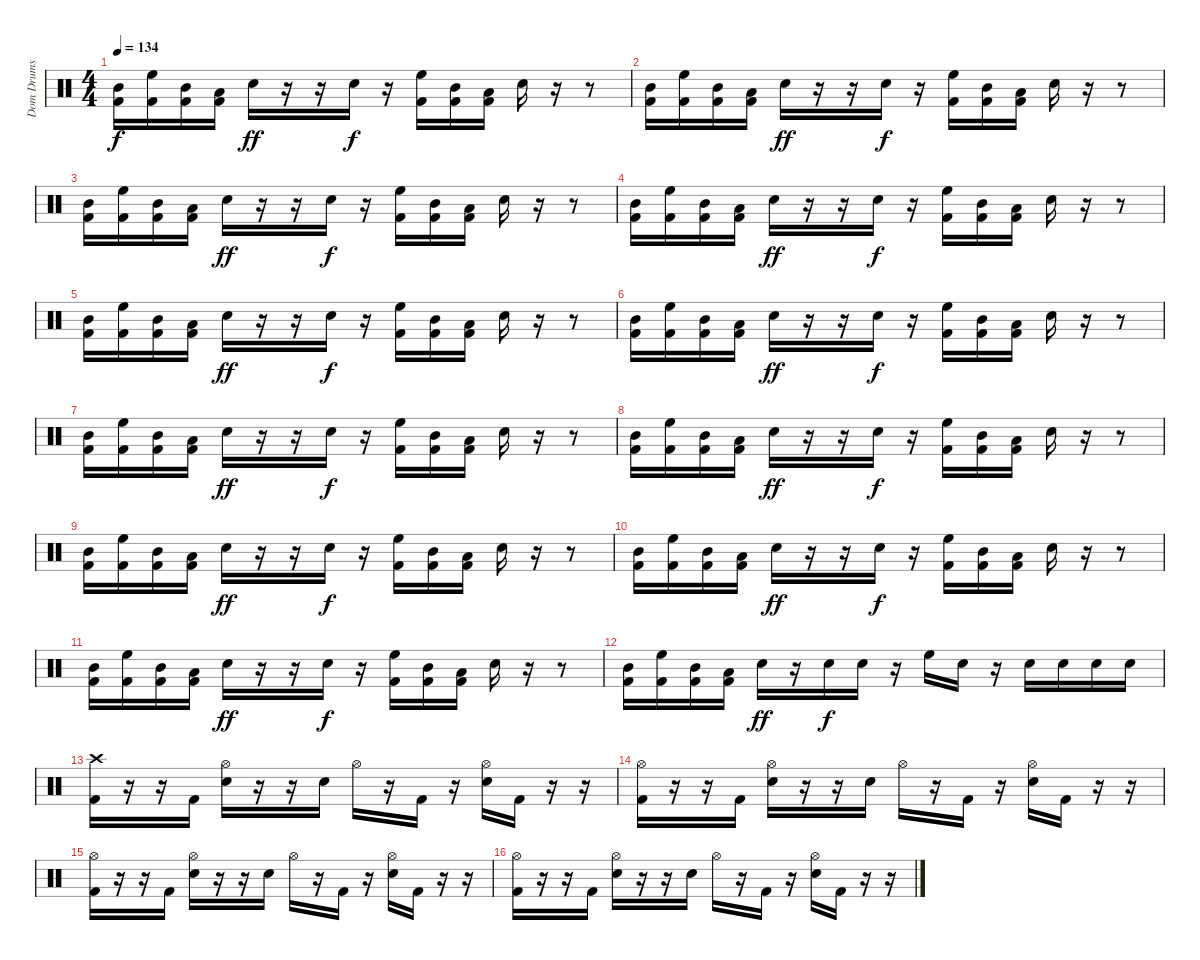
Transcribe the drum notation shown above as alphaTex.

\track ("Dom Drums" "Dom Drums") {instrument percussion}
\staff {score}
\articulation defaults
\ts (4 4)
\tempo 134
\clef neutral
\ks c
("Mid Tom (hit)" "Kick (hit) 2").16{dy f} ("High Floor Tom (hit)" "Kick (hit) 2").16 ("Mid Tom (hit)" "Kick (hit) 2").16 ("Low Tom (hit)" "Kick (hit) 2").16 "Electric Snare (hit)".16{dy ff} r.16 r.16 "Electric Snare (hit)".16{dy f} r.16 ("High Floor Tom (hit)" "Kick (hit) 2").16 ("Mid Tom (hit)" "Kick (hit) 2").16 ("Low Tom (hit)" "Kick (hit) 2").16 "Electric Snare (hit)".16 r.16 r.8 |
("Mid Tom (hit)" "Kick (hit) 2").16 ("High Floor Tom (hit)" "Kick (hit) 2").16 ("Mid Tom (hit)" "Kick (hit) 2").16 ("Low Tom (hit)" "Kick (hit) 2").16 "Electric Snare (hit)".16{dy ff} r.16 r.16 "Electric Snare (hit)".16{dy f} r.16 ("High Floor Tom (hit)" "Kick (hit) 2").16 ("Mid Tom (hit)" "Kick (hit) 2").16 ("Low Tom (hit)" "Kick (hit) 2").16 "Electric Snare (hit)".16 r.16 r.8 |
("Mid Tom (hit)" "Kick (hit) 2").16 ("High Floor Tom (hit)" "Kick (hit) 2").16 ("Mid Tom (hit)" "Kick (hit) 2").16 ("Low Tom (hit)" "Kick (hit) 2").16 "Electric Snare (hit)".16{dy ff} r.16 r.16 "Electric Snare (hit)".16{dy f} r.16 ("High Floor Tom (hit)" "Kick (hit) 2").16 ("Mid Tom (hit)" "Kick (hit) 2").16 ("Low Tom (hit)" "Kick (hit) 2").16 "Electric Snare (hit)".16 r.16 r.8 |
("Mid Tom (hit)" "Kick (hit) 2").16 ("High Floor Tom (hit)" "Kick (hit) 2").16 ("Mid Tom (hit)" "Kick (hit) 2").16 ("Low Tom (hit)" "Kick (hit) 2").16 "Electric Snare (hit)".16{dy ff} r.16 r.16 "Electric Snare (hit)".16{dy f} r.16 ("High Floor Tom (hit)" "Kick (hit) 2").16 ("Mid Tom (hit)" "Kick (hit) 2").16 ("Low Tom (hit)" "Kick (hit) 2").16 "Electric Snare (hit)".16 r.16 r.8 |
("Mid Tom (hit)" "Kick (hit) 2").16 ("High Floor Tom (hit)" "Kick (hit) 2").16 ("Mid Tom (hit)" "Kick (hit) 2").16 ("Low Tom (hit)" "Kick (hit) 2").16 "Electric Snare (hit)".16{dy ff} r.16 r.16 "Electric Snare (hit)".16{dy f} r.16 ("High Floor Tom (hit)" "Kick (hit) 2").16 ("Mid Tom (hit)" "Kick (hit) 2").16 ("Low Tom (hit)" "Kick (hit) 2").16 "Electric Snare (hit)".16 r.16 r.8 |
("Mid Tom (hit)" "Kick (hit) 2").16 ("High Floor Tom (hit)" "Kick (hit) 2").16 ("Mid Tom (hit)" "Kick (hit) 2").16 ("Low Tom (hit)" "Kick (hit) 2").16 "Electric Snare (hit)".16{dy ff} r.16 r.16 "Electric Snare (hit)".16{dy f} r.16 ("High Floor Tom (hit)" "Kick (hit) 2").16 ("Mid Tom (hit)" "Kick (hit) 2").16 ("Low Tom (hit)" "Kick (hit) 2").16 "Electric Snare (hit)".16 r.16 r.8 |
("Mid Tom (hit)" "Kick (hit) 2").16 ("High Floor Tom (hit)" "Kick (hit) 2").16 ("Mid Tom (hit)" "Kick (hit) 2").16 ("Low Tom (hit)" "Kick (hit) 2").16 "Electric Snare (hit)".16{dy ff} r.16 r.16 "Electric Snare (hit)".16{dy f} r.16 ("High Floor Tom (hit)" "Kick (hit) 2").16 ("Mid Tom (hit)" "Kick (hit) 2").16 ("Low Tom (hit)" "Kick (hit) 2").16 "Electric Snare (hit)".16 r.16 r.8 |
("Mid Tom (hit)" "Kick (hit) 2").16 ("High Floor Tom (hit)" "Kick (hit) 2").16 ("Mid Tom (hit)" "Kick (hit) 2").16 ("Low Tom (hit)" "Kick (hit) 2").16 "Electric Snare (hit)".16{dy ff} r.16 r.16 "Electric Snare (hit)".16{dy f} r.16 ("High Floor Tom (hit)" "Kick (hit) 2").16 ("Mid Tom (hit)" "Kick (hit) 2").16 ("Low Tom (hit)" "Kick (hit) 2").16 "Electric Snare (hit)".16 r.16 r.8 |
("Mid Tom (hit)" "Kick (hit) 2").16 ("High Floor Tom (hit)" "Kick (hit) 2").16 ("Mid Tom (hit)" "Kick (hit) 2").16 ("Low Tom (hit)" "Kick (hit) 2").16 "Electric Snare (hit)".16{dy ff} r.16 r.16 "Electric Snare (hit)".16{dy f} r.16 ("High Floor Tom (hit)" "Kick (hit) 2").16 ("Mid Tom (hit)" "Kick (hit) 2").16 ("Low Tom (hit)" "Kick (hit) 2").16 "Electric Snare (hit)".16 r.16 r.8 |
("Mid Tom (hit)" "Kick (hit) 2").16 ("High Floor Tom (hit)" "Kick (hit) 2").16 ("Mid Tom (hit)" "Kick (hit) 2").16 ("Low Tom (hit)" "Kick (hit) 2").16 "Electric Snare (hit)".16{dy ff} r.16 r.16 "Electric Snare (hit)".16{dy f} r.16 ("High Floor Tom (hit)" "Kick (hit) 2").16 ("Mid Tom (hit)" "Kick (hit) 2").16 ("Low Tom (hit)" "Kick (hit) 2").16 "Electric Snare (hit)".16 r.16 r.8 |
("Mid Tom (hit)" "Kick (hit) 2").16 ("High Floor Tom (hit)" "Kick (hit) 2").16 ("Mid Tom (hit)" "Kick (hit) 2").16 ("Low Tom (hit)" "Kick (hit) 2").16 "Electric Snare (hit)".16{dy ff} r.16 r.16 "Electric Snare (hit)".16{dy f} r.16 ("High Floor Tom (hit)" "Kick (hit) 2").16 ("Mid Tom (hit)" "Kick (hit) 2").16 ("Low Tom (hit)" "Kick (hit) 2").16 "Electric Snare (hit)".16 r.16 r.8 |
("Mid Tom (hit)" "Kick (hit) 2").16 ("High Floor Tom (hit)" "Kick (hit) 2").16 ("Mid Tom (hit)" "Kick (hit) 2").16 ("Low Tom (hit)" "Kick (hit) 2").16 "Electric Snare (hit)".16{dy ff} r.16 "Electric Snare (hit)".16{dy f} "Electric Snare (hit)".16 r.16 "High Floor Tom (hit)".16 "Electric Snare (hit)".16 r.16 "Electric Snare (hit)".16 "Electric Snare (hit)".16 "Electric Snare (hit)".16 "Electric Snare (hit)".16 |
("Crash high (hit)" "Kick (hit) 2").16 r.16 r.16 "Kick (hit) 2".16 ("Hi-Hat (open)" "Electric Snare (hit)").16 r.16 r.16 "Electric Snare (hit)".16 "Hi-Hat (open)".16 r.16 "Kick (hit) 2".16 r.16 ("Hi-Hat (open)" "Electric Snare (hit)").16 "Kick (hit) 2".16 r.16 r.16 |
("Hi-Hat (open)" "Kick (hit) 2").16 r.16 r.16 "Kick (hit) 2".16 ("Hi-Hat (open)" "Electric Snare (hit)").16 r.16 r.16 "Electric Snare (hit)".16 "Hi-Hat (open)".16 r.16 "Kick (hit) 2".16 r.16 ("Hi-Hat (open)" "Electric Snare (hit)").16 "Kick (hit) 2".16 r.16 r.16 |
("Hi-Hat (open)" "Kick (hit) 2").16 r.16 r.16 "Kick (hit) 2".16 ("Hi-Hat (open)" "Electric Snare (hit)").16 r.16 r.16 "Electric Snare (hit)".16 "Hi-Hat (open)".16 r.16 "Kick (hit) 2".16 r.16 ("Hi-Hat (open)" "Electric Snare (hit)").16 "Kick (hit) 2".16 r.16 r.16 |
("Hi-Hat (open)" "Kick (hit) 2").16 r.16 r.16 "Kick (hit) 2".16 ("Hi-Hat (open)" "Electric Snare (hit)").16 r.16 r.16 "Electric Snare (hit)".16 "Hi-Hat (open)".16 r.16 "Kick (hit) 2".16 r.16 ("Hi-Hat (open)" "Electric Snare (hit)").16 "Kick (hit) 2".16 r.16 r.16
